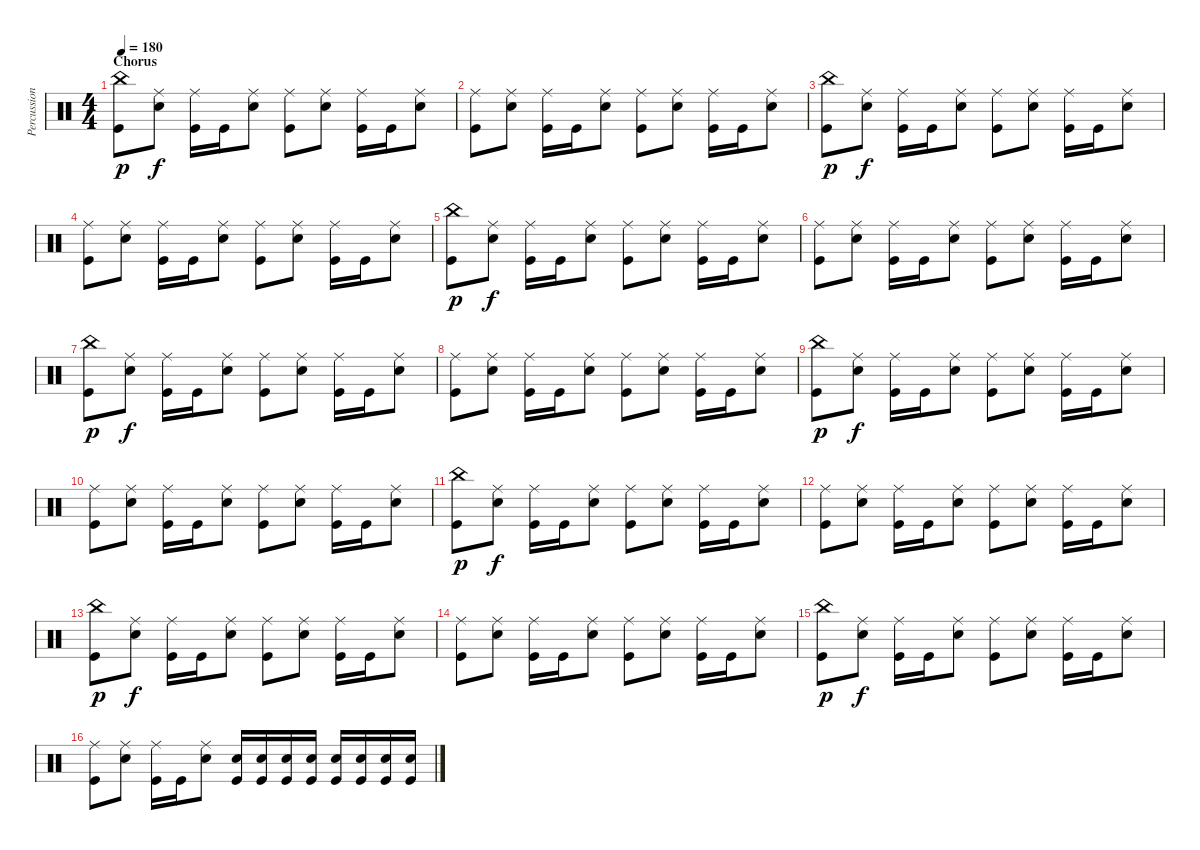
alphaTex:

\track ("Percussion" "Percussion") {instrument percussion}
\staff {score}
\articulation defaults
\ts (4 4)
\section ("" "Chorus")
\tempo 180
\clef neutral
\ks c
("China (hit)" "Kick (hit)").8{dy p} ("Ride (middle)" "Snare (hit) 2").8{dy f} ("Ride (middle)" "Kick (hit)").16 "Kick (hit)".16 ("Ride (middle)" "Snare (hit) 2").8 ("Ride (middle)" "Kick (hit)").8 ("Ride (middle)" "Snare (hit) 2").8 ("Ride (middle)" "Kick (hit)").16 "Kick (hit)".16 ("Ride (middle)" "Snare (hit) 2").8 |
("Ride (middle)" "Kick (hit)").8 ("Ride (middle)" "Snare (hit) 2").8 ("Ride (middle)" "Kick (hit)").16 "Kick (hit)".16 ("Ride (middle)" "Snare (hit) 2").8 ("Ride (middle)" "Kick (hit)").8 ("Ride (middle)" "Snare (hit) 2").8 ("Ride (middle)" "Kick (hit)").16 "Kick (hit)".16 ("Ride (middle)" "Snare (hit) 2").8 |
("China (hit)" "Kick (hit)").8{dy p} ("Ride (middle)" "Snare (hit) 2").8{dy f} ("Ride (middle)" "Kick (hit)").16 "Kick (hit)".16 ("Ride (middle)" "Snare (hit) 2").8 ("Ride (middle)" "Kick (hit)").8 ("Ride (middle)" "Snare (hit) 2").8 ("Ride (middle)" "Kick (hit)").16 "Kick (hit)".16 ("Ride (middle)" "Snare (hit) 2").8 |
("Ride (middle)" "Kick (hit)").8 ("Ride (middle)" "Snare (hit) 2").8 ("Ride (middle)" "Kick (hit)").16 "Kick (hit)".16 ("Ride (middle)" "Snare (hit) 2").8 ("Ride (middle)" "Kick (hit)").8 ("Ride (middle)" "Snare (hit) 2").8 ("Ride (middle)" "Kick (hit)").16 "Kick (hit)".16 ("Ride (middle)" "Snare (hit) 2").8 |
("China (hit)" "Kick (hit)").8{dy p} ("Ride (middle)" "Snare (hit) 2").8{dy f} ("Ride (middle)" "Kick (hit)").16 "Kick (hit)".16 ("Ride (middle)" "Snare (hit) 2").8 ("Ride (middle)" "Kick (hit)").8 ("Ride (middle)" "Snare (hit) 2").8 ("Ride (middle)" "Kick (hit)").16 "Kick (hit)".16 ("Ride (middle)" "Snare (hit) 2").8 |
("Ride (middle)" "Kick (hit)").8 ("Ride (middle)" "Snare (hit) 2").8 ("Ride (middle)" "Kick (hit)").16 "Kick (hit)".16 ("Ride (middle)" "Snare (hit) 2").8 ("Ride (middle)" "Kick (hit)").8 ("Ride (middle)" "Snare (hit) 2").8 ("Ride (middle)" "Kick (hit)").16 "Kick (hit)".16 ("Ride (middle)" "Snare (hit) 2").8 |
("China (hit)" "Kick (hit)").8{dy p} ("Ride (middle)" "Snare (hit) 2").8{dy f} ("Ride (middle)" "Kick (hit)").16 "Kick (hit)".16 ("Ride (middle)" "Snare (hit) 2").8 ("Ride (middle)" "Kick (hit)").8 ("Ride (middle)" "Snare (hit) 2").8 ("Ride (middle)" "Kick (hit)").16 "Kick (hit)".16 ("Ride (middle)" "Snare (hit) 2").8 |
("Ride (middle)" "Kick (hit)").8 ("Ride (middle)" "Snare (hit) 2").8 ("Ride (middle)" "Kick (hit)").16 "Kick (hit)".16 ("Ride (middle)" "Snare (hit) 2").8 ("Ride (middle)" "Kick (hit)").8 ("Ride (middle)" "Snare (hit) 2").8 ("Ride (middle)" "Kick (hit)").16 "Kick (hit)".16 ("Ride (middle)" "Snare (hit) 2").8 |
("China (hit)" "Kick (hit)").8{dy p} ("Ride (middle)" "Snare (hit) 2").8{dy f} ("Ride (middle)" "Kick (hit)").16 "Kick (hit)".16 ("Ride (middle)" "Snare (hit) 2").8 ("Ride (middle)" "Kick (hit)").8 ("Ride (middle)" "Snare (hit) 2").8 ("Ride (middle)" "Kick (hit)").16 "Kick (hit)".16 ("Ride (middle)" "Snare (hit) 2").8 |
("Ride (middle)" "Kick (hit)").8 ("Ride (middle)" "Snare (hit) 2").8 ("Ride (middle)" "Kick (hit)").16 "Kick (hit)".16 ("Ride (middle)" "Snare (hit) 2").8 ("Ride (middle)" "Kick (hit)").8 ("Ride (middle)" "Snare (hit) 2").8 ("Ride (middle)" "Kick (hit)").16 "Kick (hit)".16 ("Ride (middle)" "Snare (hit) 2").8 |
("China (hit)" "Kick (hit)").8{dy p} ("Ride (middle)" "Snare (hit) 2").8{dy f} ("Ride (middle)" "Kick (hit)").16 "Kick (hit)".16 ("Ride (middle)" "Snare (hit) 2").8 ("Ride (middle)" "Kick (hit)").8 ("Ride (middle)" "Snare (hit) 2").8 ("Ride (middle)" "Kick (hit)").16 "Kick (hit)".16 ("Ride (middle)" "Snare (hit) 2").8 |
("Ride (middle)" "Kick (hit)").8 ("Ride (middle)" "Snare (hit) 2").8 ("Ride (middle)" "Kick (hit)").16 "Kick (hit)".16 ("Ride (middle)" "Snare (hit) 2").8 ("Ride (middle)" "Kick (hit)").8 ("Ride (middle)" "Snare (hit) 2").8 ("Ride (middle)" "Kick (hit)").16 "Kick (hit)".16 ("Ride (middle)" "Snare (hit) 2").8 |
("China (hit)" "Kick (hit)").8{dy p} ("Ride (middle)" "Snare (hit) 2").8{dy f} ("Ride (middle)" "Kick (hit)").16 "Kick (hit)".16 ("Ride (middle)" "Snare (hit) 2").8 ("Ride (middle)" "Kick (hit)").8 ("Ride (middle)" "Snare (hit) 2").8 ("Ride (middle)" "Kick (hit)").16 "Kick (hit)".16 ("Ride (middle)" "Snare (hit) 2").8 |
("Ride (middle)" "Kick (hit)").8 ("Ride (middle)" "Snare (hit) 2").8 ("Ride (middle)" "Kick (hit)").16 "Kick (hit)".16 ("Ride (middle)" "Snare (hit) 2").8 ("Ride (middle)" "Kick (hit)").8 ("Ride (middle)" "Snare (hit) 2").8 ("Ride (middle)" "Kick (hit)").16 "Kick (hit)".16 ("Ride (middle)" "Snare (hit) 2").8 |
("China (hit)" "Kick (hit)").8{dy p} ("Ride (middle)" "Snare (hit) 2").8{dy f} ("Ride (middle)" "Kick (hit)").16 "Kick (hit)".16 ("Ride (middle)" "Snare (hit) 2").8 ("Ride (middle)" "Kick (hit)").8 ("Ride (middle)" "Snare (hit) 2").8 ("Ride (middle)" "Kick (hit)").16 "Kick (hit)".16 ("Ride (middle)" "Snare (hit) 2").8 |
("Ride (middle)" "Kick (hit)").8 ("Ride (middle)" "Snare (hit) 2").8 ("Ride (middle)" "Kick (hit)").16 "Kick (hit)".16 ("Ride (middle)" "Snare (hit) 2").8 ("Snare (hit) 2" "Kick (hit)").16 ("Snare (hit) 2" "Kick (hit)").16 ("Snare (hit) 2" "Kick (hit)").16 ("Snare (hit) 2" "Kick (hit)").16 ("Snare (hit) 2" "Kick (hit)").16 ("Snare (hit) 2" "Kick (hit)").16 ("Snare (hit) 2" "Kick (hit)").16 ("Snare (hit) 2" "Kick (hit)").16
